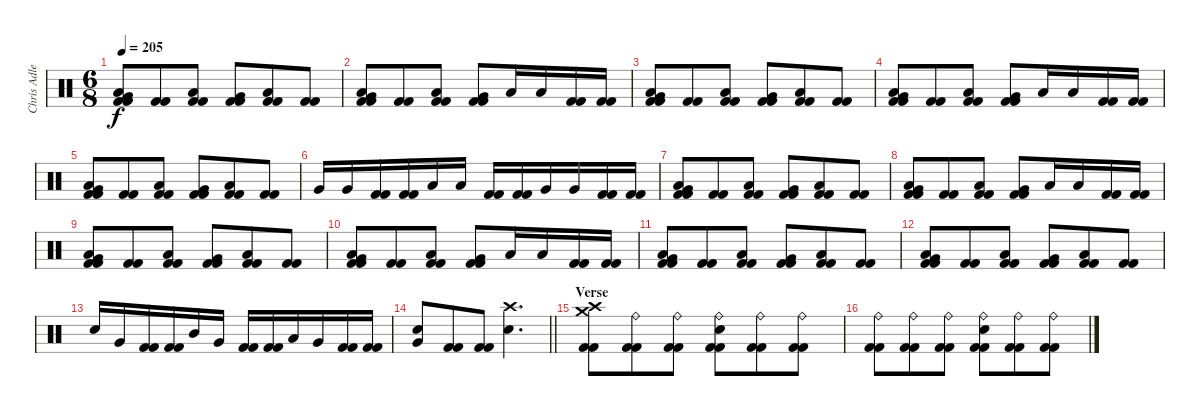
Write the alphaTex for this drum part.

\track ("Chris Adler" "Chris Adle") {instrument percussion}
\staff {score}
\articulation defaults
\ts (6 8)
\tempo 205
\clef neutral
\ks c
("Very Low Tom (hit)" "Low Floor Tom (hit)" "Kick (hit) 2" "Kick (hit) 2").8{dy f} ("Kick (hit) 2" "Kick (hit) 2").8 ("Low Floor Tom (hit)" "Kick (hit) 2" "Kick (hit) 2").8 ("Very Low Tom (hit)" "Kick (hit) 2" "Kick (hit) 2").8 ("Low Floor Tom (hit)" "Kick (hit) 2" "Kick (hit) 2").8 ("Kick (hit) 2" "Kick (hit) 2").8 |
("Very Low Tom (hit)" "Low Floor Tom (hit)" "Kick (hit) 2" "Kick (hit) 2").8 ("Kick (hit) 2" "Kick (hit) 2").8 ("Low Floor Tom (hit)" "Kick (hit) 2" "Kick (hit) 2").8 ("Very Low Tom (hit)" "Kick (hit) 2" "Kick (hit) 2").8 "Low Floor Tom (hit)".16 "Low Floor Tom (hit)".16 ("Kick (hit) 2" "Kick (hit) 2").16 ("Kick (hit) 2" "Kick (hit) 2").16 |
("Very Low Tom (hit)" "Low Floor Tom (hit)" "Kick (hit) 2" "Kick (hit) 2").8 ("Kick (hit) 2" "Kick (hit) 2").8 ("Low Floor Tom (hit)" "Kick (hit) 2" "Kick (hit) 2").8 ("Very Low Tom (hit)" "Kick (hit) 2" "Kick (hit) 2").8 ("Low Floor Tom (hit)" "Kick (hit) 2" "Kick (hit) 2").8 ("Kick (hit) 2" "Kick (hit) 2").8 |
("Very Low Tom (hit)" "Low Floor Tom (hit)" "Kick (hit) 2" "Kick (hit) 2").8 ("Kick (hit) 2" "Kick (hit) 2").8 ("Low Floor Tom (hit)" "Kick (hit) 2" "Kick (hit) 2").8 ("Very Low Tom (hit)" "Kick (hit) 2" "Kick (hit) 2").8 "Low Floor Tom (hit)".16 "Low Floor Tom (hit)".16 ("Kick (hit) 2" "Kick (hit) 2").16 ("Kick (hit) 2" "Kick (hit) 2").16 |
("Very Low Tom (hit)" "Low Floor Tom (hit)" "Kick (hit) 2" "Kick (hit) 2").8 ("Kick (hit) 2" "Kick (hit) 2").8 ("Low Floor Tom (hit)" "Kick (hit) 2" "Kick (hit) 2").8 ("Very Low Tom (hit)" "Kick (hit) 2" "Kick (hit) 2").8 ("Low Floor Tom (hit)" "Kick (hit) 2" "Kick (hit) 2").8 ("Kick (hit) 2" "Kick (hit) 2").8 |
"Very Low Tom (hit)".16 "Very Low Tom (hit)".16 ("Kick (hit) 2" "Kick (hit) 2").16 ("Kick (hit) 2" "Kick (hit) 2").16 "Low Floor Tom (hit)".16 "Low Floor Tom (hit)".16 ("Kick (hit) 2" "Kick (hit) 2").16 ("Kick (hit) 2" "Kick (hit) 2").16 "Very Low Tom (hit)".16 "Very Low Tom (hit)".16 ("Kick (hit) 2" "Kick (hit) 2").16 ("Kick (hit) 2" "Kick (hit) 2").16 |
("Very Low Tom (hit)" "Low Floor Tom (hit)" "Kick (hit) 2" "Kick (hit) 2").8 ("Kick (hit) 2" "Kick (hit) 2").8 ("Low Floor Tom (hit)" "Kick (hit) 2" "Kick (hit) 2").8 ("Very Low Tom (hit)" "Kick (hit) 2" "Kick (hit) 2").8 ("Low Floor Tom (hit)" "Kick (hit) 2" "Kick (hit) 2").8 ("Kick (hit) 2" "Kick (hit) 2").8 |
("Very Low Tom (hit)" "Low Floor Tom (hit)" "Kick (hit) 2" "Kick (hit) 2").8 ("Kick (hit) 2" "Kick (hit) 2").8 ("Low Floor Tom (hit)" "Kick (hit) 2" "Kick (hit) 2").8 ("Very Low Tom (hit)" "Kick (hit) 2" "Kick (hit) 2").8 "Low Floor Tom (hit)".16 "Low Floor Tom (hit)".16 ("Kick (hit) 2" "Kick (hit) 2").16 ("Kick (hit) 2" "Kick (hit) 2").16 |
("Very Low Tom (hit)" "Low Floor Tom (hit)" "Kick (hit) 2" "Kick (hit) 2").8 ("Kick (hit) 2" "Kick (hit) 2").8 ("Low Floor Tom (hit)" "Kick (hit) 2" "Kick (hit) 2").8 ("Very Low Tom (hit)" "Kick (hit) 2" "Kick (hit) 2").8 ("Low Floor Tom (hit)" "Kick (hit) 2" "Kick (hit) 2").8 ("Kick (hit) 2" "Kick (hit) 2").8 |
("Very Low Tom (hit)" "Low Floor Tom (hit)" "Kick (hit) 2" "Kick (hit) 2").8 ("Kick (hit) 2" "Kick (hit) 2").8 ("Low Floor Tom (hit)" "Kick (hit) 2" "Kick (hit) 2").8 ("Very Low Tom (hit)" "Kick (hit) 2" "Kick (hit) 2").8 "Low Floor Tom (hit)".16 "Low Floor Tom (hit)".16 ("Kick (hit) 2" "Kick (hit) 2").16 ("Kick (hit) 2" "Kick (hit) 2").16 |
("Very Low Tom (hit)" "Low Floor Tom (hit)" "Kick (hit) 2" "Kick (hit) 2").8 ("Kick (hit) 2" "Kick (hit) 2").8 ("Low Floor Tom (hit)" "Kick (hit) 2" "Kick (hit) 2").8 ("Very Low Tom (hit)" "Kick (hit) 2" "Kick (hit) 2").8 ("Low Floor Tom (hit)" "Kick (hit) 2" "Kick (hit) 2").8 ("Kick (hit) 2" "Kick (hit) 2").8 |
("Very Low Tom (hit)" "Low Floor Tom (hit)" "Kick (hit) 2" "Kick (hit) 2").8 ("Kick (hit) 2" "Kick (hit) 2").8 ("Low Floor Tom (hit)" "Kick (hit) 2" "Kick (hit) 2").8 ("Very Low Tom (hit)" "Kick (hit) 2" "Kick (hit) 2").8 ("Low Floor Tom (hit)" "Kick (hit) 2" "Kick (hit) 2").8 ("Kick (hit) 2" "Kick (hit) 2").8 |
"Electric Snare (hit)".16 "Very Low Tom (hit)".16 ("Kick (hit) 2" "Kick (hit) 2").16 ("Kick (hit) 2" "Kick (hit) 2").16 "Mid Tom (hit)".16 "Very Low Tom (hit)".16 ("Kick (hit) 2" "Kick (hit) 2").16 ("Kick (hit) 2" "Kick (hit) 2").16 "Low Tom (hit)".16 "Very Low Tom (hit)".16 ("Kick (hit) 2" "Kick (hit) 2").16 ("Kick (hit) 2" "Kick (hit) 2").16 |
\barLineRight lightlight
("Electric Snare (hit)" "Very Low Tom (hit)").8 ("Kick (hit) 2" "Kick (hit) 2").8 ("Kick (hit) 2" "Kick (hit) 2").8 ("Crash high (hit)" "Electric Snare (hit)").4{d} |
\section ("" "Verse")
("Crash medium (hit)" "Crash high (hit)" "Kick (hit) 2" "Kick (hit) 2").8 ("Ride (bell)" "Kick (hit) 2" "Kick (hit) 2").8 ("Ride (bell)" "Kick (hit) 2" "Kick (hit) 2").8 ("Ride (bell)" "Electric Snare (hit)" "Kick (hit) 2" "Kick (hit) 2").8 ("Ride (bell)" "Kick (hit) 2" "Kick (hit) 2").8 ("Ride (bell)" "Kick (hit) 2" "Kick (hit) 2").8 |
("Ride (bell)" "Kick (hit) 2" "Kick (hit) 2").8 ("Ride (bell)" "Kick (hit) 2" "Kick (hit) 2").8 ("Ride (bell)" "Kick (hit) 2" "Kick (hit) 2").8 ("Ride (bell)" "Electric Snare (hit)" "Kick (hit) 2" "Kick (hit) 2").8 ("Ride (bell)" "Kick (hit) 2" "Kick (hit) 2").8 ("Ride (bell)" "Kick (hit) 2" "Kick (hit) 2").8
